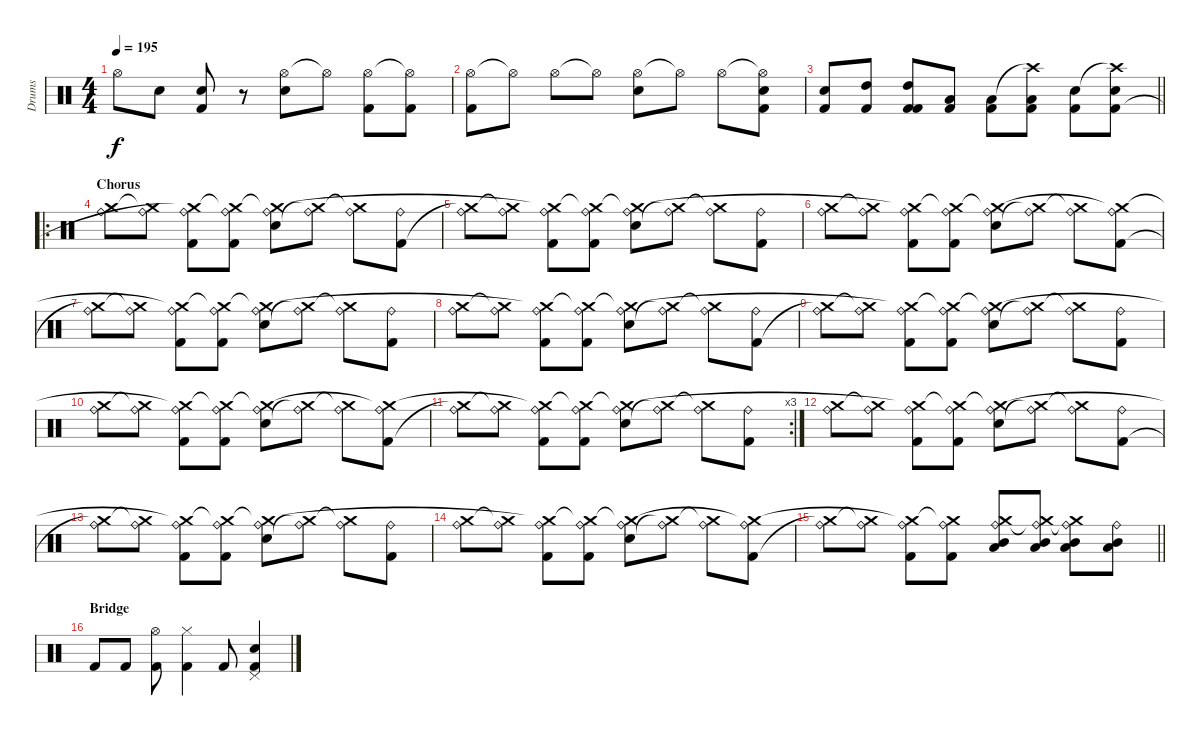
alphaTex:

\track ("Drums" "Drums") {instrument percussion}
\staff {score}
\articulation defaults
\ts (4 4)
\tempo 195
\clef neutral
\ks c "Hi-Hat (open)".8{dy f} "Snare (hit) 2".8
("Kick (hit) 2" "Snare (hit) 2"{t}).8 r.8 ("Hi-Hat (open)" "Snare (hit) 2").8 "Hi-Hat (open)"{t}.8 ("Hi-Hat (open)" "Kick (hit) 2").8 ("Hi-Hat (open)"{t} "Kick (hit) 2").8 |
("Hi-Hat (open)" "Kick (hit) 2").8 "Hi-Hat (open)"{t}.8 "Hi-Hat (open)".8 "Hi-Hat (open)"{t}.8 ("Hi-Hat (open)" "Snare (hit) 2").8 "Hi-Hat (open)"{t}.8 "Hi-Hat (open)".8 ("Hi-Hat (open)"{t} "Kick (hit) 2" "Snare (hit) 2").8 |
\barLineRight lightlight
("Snare (hit) 2" "Kick (hit) 2").8 ("High Tom (hit)" "Kick (hit) 2").8 ("Kick (hit) 2" "High Tom (hit)" "Kick (hit) 2").8 ("Low Tom (hit)" "Kick (hit) 2").8 ("Low Tom (hit)" "Kick (hit) 2").8 ("Crash high (hit)"{t} "Low Tom (hit)" "Kick (hit) 2").8 ("Snare (hit) 2" "Kick (hit) 2").8 ("Crash high (hit)"{t} "Snare (hit) 2" "Kick (hit) 2").8 |
\ro
\section ("" "Chorus")
("Ride (bell)" "Crash medium (hit)").8 ("Ride (bell)" "Crash medium (hit)"{t}).8 ("Ride (bell)" "Kick (hit) 2" "Crash medium (hit)"{t}).8 ("Ride (bell)" "Kick (hit) 2" "Crash medium (hit)"{t}).8 ("Ride (bell)" "Snare (hit) 2" "Crash medium (hit)"{t}).8 ("Ride (bell)" "Crash medium (hit)"{t}).8 ("Ride (bell)" "Crash medium (hit)"{t}).8 ("Ride (bell)" "Kick (hit) 2").8 |
("Ride (bell)" "Crash medium (hit)"{t}).8 ("Ride (bell)" "Crash medium (hit)"{t}).8 ("Ride (bell)" "Kick (hit) 2" "Crash medium (hit)"{t}).8 ("Ride (bell)" "Kick (hit) 2" "Crash medium (hit)"{t}).8 ("Ride (bell)" "Snare (hit) 2" "Crash medium (hit)"{t}).8 ("Ride (bell)" "Crash medium (hit)"{t}).8 ("Ride (bell)" "Crash medium (hit)"{t}).8 ("Ride (bell)" "Kick (hit) 2").8 |
("Ride (bell)" "Crash medium (hit)").8 ("Ride (bell)" "Crash medium (hit)"{t}).8 ("Ride (bell)" "Kick (hit) 2" "Crash medium (hit)"{t}).8 ("Ride (bell)" "Kick (hit) 2" "Crash medium (hit)"{t}).8 ("Ride (bell)" "Snare (hit) 2" "Crash medium (hit)"{t}).8 ("Ride (bell)" "Crash medium (hit)"{t}).8 ("Ride (bell)" "Crash medium (hit)"{t}).8 ("Ride (bell)" "Kick (hit) 2" "Crash medium (hit)"{t}).8 |
("Ride (bell)" "Crash medium (hit)"{t}).8 ("Ride (bell)" "Crash medium (hit)"{t}).8 ("Ride (bell)" "Kick (hit) 2" "Crash medium (hit)"{t}).8 ("Ride (bell)" "Kick (hit) 2" "Crash medium (hit)"{t}).8 ("Ride (bell)" "Snare (hit) 2" "Crash medium (hit)"{t}).8 ("Ride (bell)" "Crash medium (hit)"{t}).8 ("Ride (bell)" "Crash medium (hit)"{t}).8 ("Ride (bell)" "Kick (hit) 2").8 |
("Ride (bell)" "Crash medium (hit)").8 ("Ride (bell)" "Crash medium (hit)"{t}).8 ("Ride (bell)" "Kick (hit) 2" "Crash medium (hit)"{t}).8 ("Ride (bell)" "Kick (hit) 2" "Crash medium (hit)"{t}).8 ("Ride (bell)" "Snare (hit) 2" "Crash medium (hit)"{t}).8 ("Ride (bell)" "Crash medium (hit)"{t}).8 ("Ride (bell)" "Crash medium (hit)"{t}).8 ("Ride (bell)" "Kick (hit) 2").8 |
("Ride (bell)" "Crash medium (hit)"{t}).8 ("Ride (bell)" "Crash medium (hit)"{t}).8 ("Ride (bell)" "Kick (hit) 2" "Crash medium (hit)"{t}).8 ("Ride (bell)" "Kick (hit) 2" "Crash medium (hit)"{t}).8 ("Ride (bell)" "Snare (hit) 2" "Crash medium (hit)"{t}).8 ("Ride (bell)" "Crash medium (hit)"{t}).8 ("Ride (bell)" "Crash medium (hit)"{t}).8 ("Ride (bell)" "Kick (hit) 2").8 |
("Ride (bell)" "Crash medium (hit)").8 ("Ride (bell)" "Crash medium (hit)"{t}).8 ("Ride (bell)" "Kick (hit) 2" "Crash medium (hit)"{t}).8 ("Ride (bell)" "Kick (hit) 2" "Crash medium (hit)"{t}).8 ("Ride (bell)" "Snare (hit) 2" "Crash medium (hit)"{t}).8 ("Ride (bell)" "Crash medium (hit)"{t}).8 ("Ride (bell)" "Crash medium (hit)"{t}).8 ("Ride (bell)" "Kick (hit) 2" "Crash medium (hit)"{t}).8 |
\rc 3
("Ride (bell)" "Crash medium (hit)"{t}).8 ("Ride (bell)" "Crash medium (hit)"{t}).8 ("Ride (bell)" "Kick (hit) 2" "Crash medium (hit)"{t}).8 ("Ride (bell)" "Kick (hit) 2" "Crash medium (hit)"{t}).8 ("Ride (bell)" "Snare (hit) 2" "Crash medium (hit)"{t}).8 ("Ride (bell)" "Crash medium (hit)"{t}).8 ("Ride (bell)" "Crash medium (hit)"{t}).8 ("Ride (bell)" "Kick (hit) 2").8 |
("Ride (bell)" "Crash medium (hit)").8 ("Ride (bell)" "Crash medium (hit)"{t}).8 ("Ride (bell)" "Kick (hit) 2" "Crash medium (hit)"{t}).8 ("Ride (bell)" "Kick (hit) 2" "Crash medium (hit)"{t}).8 ("Ride (bell)" "Snare (hit) 2" "Crash medium (hit)"{t}).8 ("Ride (bell)" "Crash medium (hit)"{t}).8 ("Ride (bell)" "Crash medium (hit)"{t}).8 ("Ride (bell)" "Kick (hit) 2").8 |
("Ride (bell)" "Crash medium (hit)"{t}).8 ("Ride (bell)" "Crash medium (hit)"{t}).8 ("Ride (bell)" "Kick (hit) 2" "Crash medium (hit)"{t}).8 ("Ride (bell)" "Kick (hit) 2" "Crash medium (hit)"{t}).8 ("Ride (bell)" "Snare (hit) 2" "Crash medium (hit)"{t}).8 ("Ride (bell)" "Crash medium (hit)"{t}).8 ("Ride (bell)" "Crash medium (hit)"{t}).8 ("Ride (bell)" "Kick (hit) 2").8 |
("Ride (bell)" "Crash medium (hit)").8 ("Ride (bell)" "Crash medium (hit)"{t}).8 ("Ride (bell)" "Kick (hit) 2" "Crash medium (hit)"{t}).8 ("Ride (bell)" "Kick (hit) 2" "Crash medium (hit)"{t}).8 ("Ride (bell)" "Snare (hit) 2" "Crash medium (hit)"{t}).8 ("Ride (bell)" "Crash medium (hit)"{t}).8 ("Ride (bell)" "Crash medium (hit)"{t}).8 ("Ride (bell)" "Kick (hit) 2" "Crash medium (hit)"{t}).8 |
\barLineRight lightlight
("Ride (bell)" "Crash medium (hit)"{t}).8 ("Ride (bell)" "Crash medium (hit)"{t}).8 ("Ride (bell)" "Kick (hit) 2" "Crash medium (hit)"{t}).8 ("Ride (bell)" "Kick (hit) 2" "Crash medium (hit)"{t}).8 ("Ride (bell)" "Mid Tom (hit)" "Low Tom (hit)" "Crash medium (hit)").8 ("Ride (bell)" "Mid Tom (hit)" "Low Tom (hit)" "Crash medium (hit)"{t}).8 ("Ride (bell)" "Low Floor Tom (hit)" "Mid Tom (hit)" "Crash medium (hit)"{t}).8 ("Ride (bell)" "Low Floor Tom (hit)" "Mid Tom (hit)").8 |
\section ("" "Bridge")
"Kick (hit) 2".8{volume 11} "Kick (hit) 2".8 ("Hi-Hat (open)" "Kick (hit) 2").8 ("Hi-Hat (closed)" "Kick (hit) 2").4 "Kick (hit) 2".8 ("Pedal Hi-Hat (hit)" "Snare (hit) 2" "Kick (hit) 2").4
